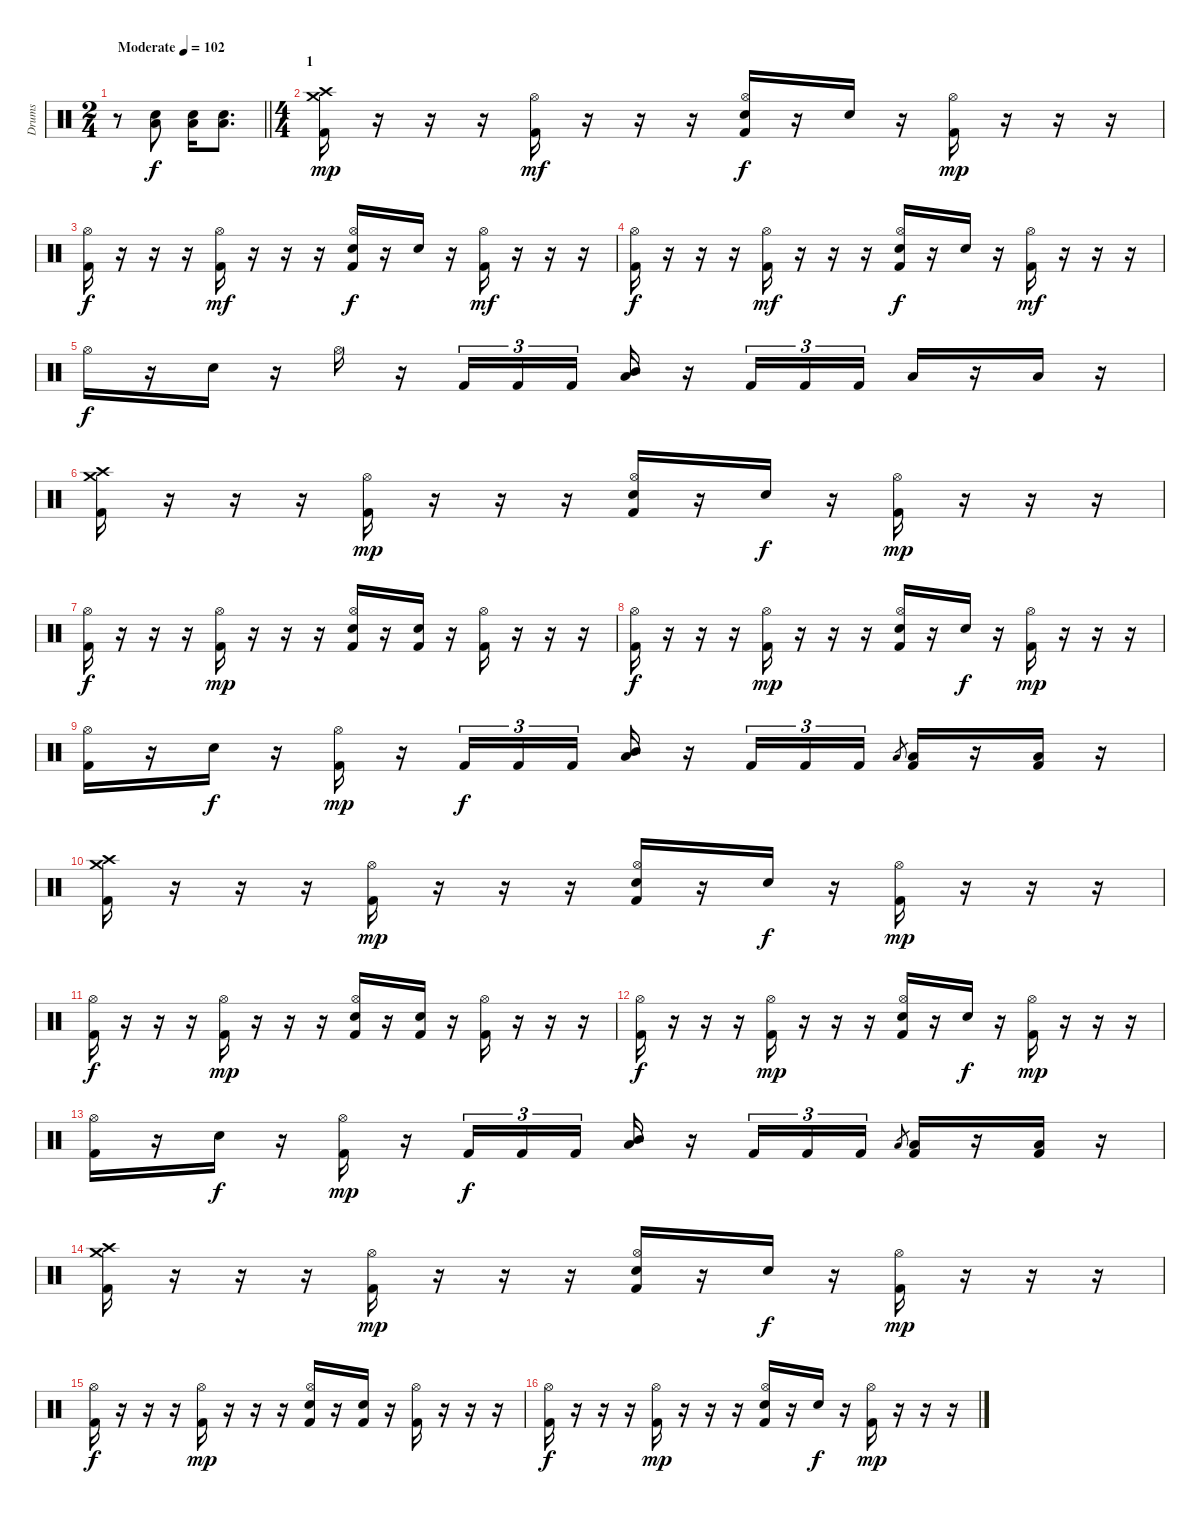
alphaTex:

\track ("Drums" "Drums") {instrument percussion}
\staff {score}
\articulation defaults
\ts (2 4)
\tempo (102 "Moderate")
\clef neutral
\barLineRight lightlight
\ks c
r.8{dy f} ("Low Tom (hit)" "Snare (hit) 2").8 ("Low Tom (hit)" "Snare (hit) 2").16 ("Low Tom (hit)" "Snare (hit) 2").8{d} |
\ts (4 4)
\section ("" "1")
("Crash medium (hit)" "Crash high (hit)" "Kick (hit) 2").16{dy mp} r.16 r.16 r.16 ("Hi-Hat (open)" "Kick (hit) 2").16{dy mf} r.16 r.16 r.16 ("Hi-Hat (open)" "Electric Snare (hit)" "Kick (hit) 2").16{dy f} r.16 "Electric Snare (hit)".16 r.16 ("Hi-Hat (open)" "Kick (hit) 2").16{dy mp} r.16 r.16 r.16 |
("Hi-Hat (open)" "Kick (hit) 2").16{dy f} r.16 r.16 r.16 ("Hi-Hat (open)" "Kick (hit) 2").16{dy mf} r.16 r.16 r.16 ("Hi-Hat (open)" "Electric Snare (hit)" "Kick (hit) 2").16{dy f} r.16 "Electric Snare (hit)".16 r.16 ("Hi-Hat (open)" "Kick (hit) 2").16{dy mf} r.16 r.16 r.16 |
("Hi-Hat (open)" "Kick (hit) 2").16{dy f} r.16 r.16 r.16 ("Hi-Hat (open)" "Kick (hit) 2").16{dy mf} r.16 r.16 r.16 ("Hi-Hat (open)" "Electric Snare (hit)" "Kick (hit) 2").16{dy f} r.16 "Electric Snare (hit)".16 r.16 ("Hi-Hat (open)" "Kick (hit) 2").16{dy mf} r.16 r.16 r.16 |
"Hi-Hat (open)".16{dy f} r.16 "Snare (hit) 2".16 r.16 "Hi-Hat (open)".16 r.16 "Kick (hit) 2".16{tu (3 2)} "Kick (hit) 2".16{tu (3 2)} "Kick (hit) 2".16{tu (3 2)} ("Mid Tom (hit)" "Low Tom (hit)").16 r.16 "Kick (hit) 2".16{tu (3 2)} "Kick (hit) 2".16{tu (3 2)} "Kick (hit) 2".16{tu (3 2)} "Low Tom (hit)".16 r.16 "Low Tom (hit)".16 r.16 |
("Crash high (hit)" "Crash medium (hit)" "Kick (hit) 2").16 r.16 r.16 r.16 ("Hi-Hat (open)" "Kick (hit) 2").16{dy mp} r.16 r.16 r.16 ("Hi-Hat (open)" "Electric Snare (hit)" "Kick (hit) 2").16 r.16 "Electric Snare (hit)".16{dy f} r.16 ("Hi-Hat (open)" "Kick (hit) 2").16{dy mp} r.16 r.16 r.16 |
("Hi-Hat (open)" "Kick (hit) 2").16{dy f} r.16 r.16 r.16 ("Hi-Hat (open)" "Kick (hit) 2").16{dy mp} r.16 r.16 r.16 ("Hi-Hat (open)" "Electric Snare (hit)" "Kick (hit) 2").16 r.16 ("Electric Snare (hit)" "Kick (hit) 2").16 r.16 ("Hi-Hat (open)" "Kick (hit) 2").16 r.16 r.16 r.16 |
("Hi-Hat (open)" "Kick (hit) 2").16{dy f} r.16 r.16 r.16 ("Hi-Hat (open)" "Kick (hit) 2").16{dy mp} r.16 r.16 r.16 ("Hi-Hat (open)" "Electric Snare (hit)" "Kick (hit) 2").16 r.16 "Electric Snare (hit)".16{dy f} r.16 ("Hi-Hat (open)" "Kick (hit) 2").16{dy mp} r.16 r.16 r.16 |
("Hi-Hat (open)" "Kick (hit) 2").16 r.16 "Snare (hit) 2".16{dy f} r.16 ("Hi-Hat (open)" "Kick (hit) 2").16{dy mp} r.16 "Kick (hit) 2".16{tu (3 2) dy f} "Kick (hit) 2".16{tu (3 2)} "Kick (hit) 2".16{tu (3 2)} ("Mid Tom (hit)" "Low Tom (hit)").16 r.16 "Kick (hit) 2".16{tu (3 2)} "Kick (hit) 2".16{tu (3 2)} "Kick (hit) 2".16{tu (3 2)} "Low Tom (hit)".8{gr} ("Low Tom (hit)" "Kick (hit) 2").16 r.16 ("Low Tom (hit)" "Kick (hit) 2").16 r.16 |
("Crash high (hit)" "Crash medium (hit)" "Kick (hit) 2").16 r.16 r.16 r.16 ("Hi-Hat (open)" "Kick (hit) 2").16{dy mp} r.16 r.16 r.16 ("Hi-Hat (open)" "Electric Snare (hit)" "Kick (hit) 2").16 r.16 "Electric Snare (hit)".16{dy f} r.16 ("Hi-Hat (open)" "Kick (hit) 2").16{dy mp} r.16 r.16 r.16 |
("Hi-Hat (open)" "Kick (hit) 2").16{dy f} r.16 r.16 r.16 ("Hi-Hat (open)" "Kick (hit) 2").16{dy mp} r.16 r.16 r.16 ("Hi-Hat (open)" "Electric Snare (hit)" "Kick (hit) 2").16 r.16 ("Electric Snare (hit)" "Kick (hit) 2").16 r.16 ("Hi-Hat (open)" "Kick (hit) 2").16 r.16 r.16 r.16 |
("Hi-Hat (open)" "Kick (hit) 2").16{dy f} r.16 r.16 r.16 ("Hi-Hat (open)" "Kick (hit) 2").16{dy mp} r.16 r.16 r.16 ("Hi-Hat (open)" "Electric Snare (hit)" "Kick (hit) 2").16 r.16 "Electric Snare (hit)".16{dy f} r.16 ("Hi-Hat (open)" "Kick (hit) 2").16{dy mp} r.16 r.16 r.16 |
("Hi-Hat (open)" "Kick (hit) 2").16 r.16 "Snare (hit) 2".16{dy f} r.16 ("Hi-Hat (open)" "Kick (hit) 2").16{dy mp} r.16 "Kick (hit) 2".16{tu (3 2) dy f} "Kick (hit) 2".16{tu (3 2)} "Kick (hit) 2".16{tu (3 2)} ("Mid Tom (hit)" "Low Tom (hit)").16 r.16 "Kick (hit) 2".16{tu (3 2)} "Kick (hit) 2".16{tu (3 2)} "Kick (hit) 2".16{tu (3 2)} "Low Tom (hit)".8{gr} ("Low Tom (hit)" "Kick (hit) 2").16 r.16 ("Low Tom (hit)" "Kick (hit) 2").16 r.16 |
("Crash high (hit)" "Crash medium (hit)" "Kick (hit) 2").16 r.16 r.16 r.16 ("Hi-Hat (open)" "Kick (hit) 2").16{dy mp} r.16 r.16 r.16 ("Hi-Hat (open)" "Electric Snare (hit)" "Kick (hit) 2").16 r.16 "Electric Snare (hit)".16{dy f} r.16 ("Hi-Hat (open)" "Kick (hit) 2").16{dy mp} r.16 r.16 r.16 |
("Hi-Hat (open)" "Kick (hit) 2").16{dy f} r.16 r.16 r.16 ("Hi-Hat (open)" "Kick (hit) 2").16{dy mp} r.16 r.16 r.16 ("Hi-Hat (open)" "Electric Snare (hit)" "Kick (hit) 2").16 r.16 ("Electric Snare (hit)" "Kick (hit) 2").16 r.16 ("Hi-Hat (open)" "Kick (hit) 2").16 r.16 r.16 r.16 |
("Hi-Hat (open)" "Kick (hit) 2").16{dy f} r.16 r.16 r.16 ("Hi-Hat (open)" "Kick (hit) 2").16{dy mp} r.16 r.16 r.16 ("Hi-Hat (open)" "Electric Snare (hit)" "Kick (hit) 2").16 r.16 "Electric Snare (hit)".16{dy f} r.16 ("Hi-Hat (open)" "Kick (hit) 2").16{dy mp} r.16 r.16 r.16
